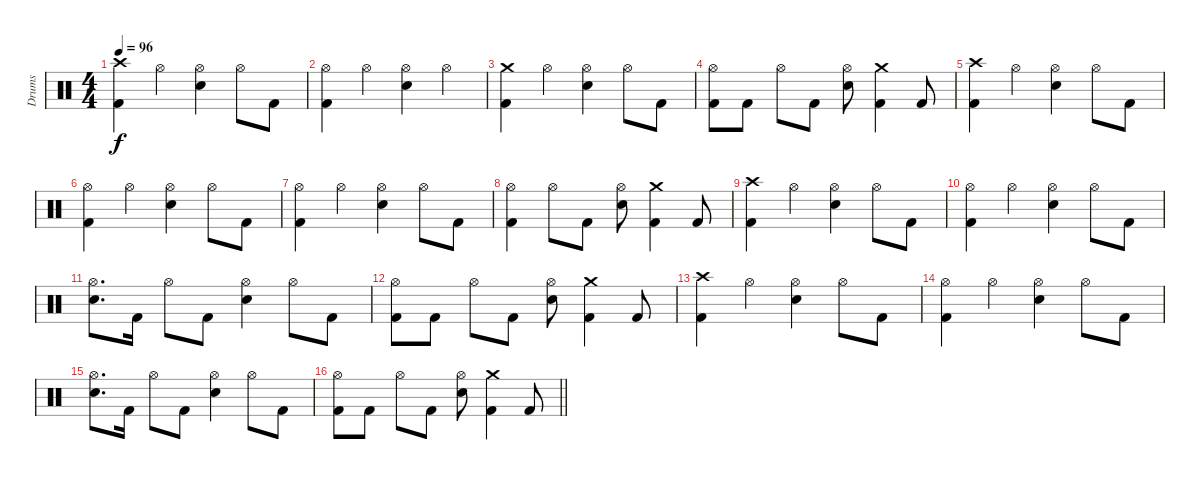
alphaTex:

\track ("Drums" "Drums") {instrument percussion}
\staff {score}
\articulation defaults
\ts (4 4)
\tempo 96
\clef neutral
\ks c
("Crash high (hit)" "Kick (hit) 2").4{dy f} "Hi-Hat (open)".4 ("Hi-Hat (open)" "Electric Snare (hit)").4 "Hi-Hat (open)".8 "Kick (hit) 2".8 |
("Hi-Hat (open)" "Kick (hit) 2").4 "Hi-Hat (open)".4 ("Hi-Hat (open)" "Electric Snare (hit)").4 "Hi-Hat (open)".4 |
("Crash medium (hit)" "Kick (hit) 2").4 "Hi-Hat (open)".4 ("Hi-Hat (open)" "Electric Snare (hit)").4 "Hi-Hat (open)".8 "Kick (hit) 2".8 |
("Hi-Hat (open)" "Kick (hit) 2").8 "Kick (hit) 2".8 "Hi-Hat (open)".8 "Kick (hit) 2".8 ("Hi-Hat (open)" "Electric Snare (hit)").8 ("Crash medium (hit)" "Kick (hit) 2").4 "Kick (hit) 2".8 |
("Crash high (hit)" "Kick (hit) 2").4 "Hi-Hat (open)".4 ("Hi-Hat (open)" "Electric Snare (hit)").4 "Hi-Hat (open)".8 "Kick (hit) 2".8 |
("Hi-Hat (open)" "Kick (hit) 2").4 "Hi-Hat (open)".4 ("Hi-Hat (open)" "Electric Snare (hit)").4 "Hi-Hat (open)".8 "Kick (hit) 2".8 |
("Hi-Hat (open)" "Kick (hit) 2").4 "Hi-Hat (open)".4 ("Hi-Hat (open)" "Electric Snare (hit)").4 "Hi-Hat (open)".8 "Kick (hit) 2".8 |
("Hi-Hat (open)" "Kick (hit) 2").4 "Hi-Hat (open)".8 "Kick (hit) 2".8 ("Hi-Hat (open)" "Electric Snare (hit)").8 ("Crash medium (hit)" "Kick (hit) 2").4 "Kick (hit) 2".8 |
("Crash high (hit)" "Kick (hit) 2").4 "Hi-Hat (open)".4 ("Hi-Hat (open)" "Electric Snare (hit)").4 "Hi-Hat (open)".8 "Kick (hit) 2".8 |
("Hi-Hat (open)" "Kick (hit) 2").4 "Hi-Hat (open)".4 ("Hi-Hat (open)" "Electric Snare (hit)").4 "Hi-Hat (open)".8 "Kick (hit) 2".8 |
("Hi-Hat (open)" "Electric Snare (hit)").8{d} "Kick (hit) 2".16 "Hi-Hat (open)".8 "Kick (hit) 2".8 ("Hi-Hat (open)" "Electric Snare (hit)").4 "Hi-Hat (open)".8 "Kick (hit) 2".8 |
("Hi-Hat (open)" "Kick (hit) 2").8 "Kick (hit) 2".8 "Hi-Hat (open)".8 "Kick (hit) 2".8 ("Hi-Hat (open)" "Electric Snare (hit)").8 ("Crash medium (hit)" "Kick (hit) 2").4 "Kick (hit) 2".8 |
("Crash high (hit)" "Kick (hit) 2").4 "Hi-Hat (open)".4 ("Hi-Hat (open)" "Electric Snare (hit)").4 "Hi-Hat (open)".8 "Kick (hit) 2".8 |
("Hi-Hat (open)" "Kick (hit) 2").4 "Hi-Hat (open)".4 ("Hi-Hat (open)" "Electric Snare (hit)").4 "Hi-Hat (open)".8 "Kick (hit) 2".8 |
("Hi-Hat (open)" "Electric Snare (hit)").8{d} "Kick (hit) 2".16 "Hi-Hat (open)".8 "Kick (hit) 2".8 ("Hi-Hat (open)" "Electric Snare (hit)").4 "Hi-Hat (open)".8 "Kick (hit) 2".8 |
\barLineRight lightlight
("Hi-Hat (open)" "Kick (hit) 2").8 "Kick (hit) 2".8 "Hi-Hat (open)".8 "Kick (hit) 2".8 ("Hi-Hat (open)" "Electric Snare (hit)").8 ("Crash medium (hit)" "Kick (hit) 2").4 "Kick (hit) 2".8
